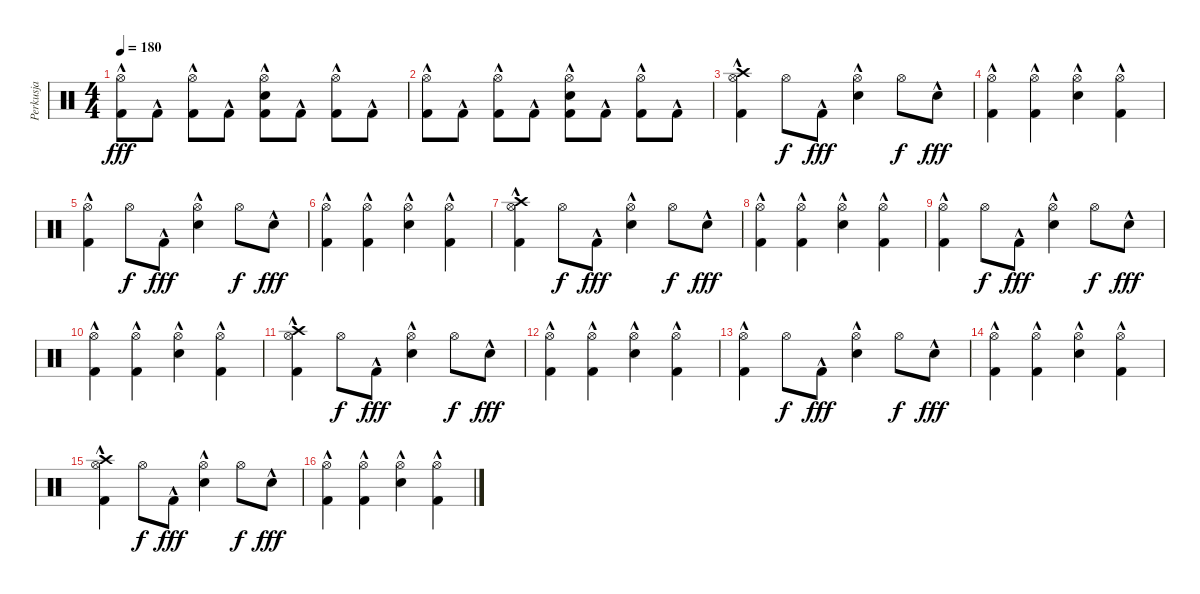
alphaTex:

\track ("Perkusja" "Perkusja") {instrument percussion}
\staff {score}
\articulation defaults
\ts (4 4)
\tempo 180
\clef neutral
\ks c
("Hi-Hat (open)" "Kick (hit) 2"{hac}).8{dy fff} "Kick (hit) 2"{hac}.8 ("Hi-Hat (open)" "Kick (hit) 2"{hac}).8 "Kick (hit) 2"{hac}.8 ("Hi-Hat (open)" "Electric Snare (hit)"{hac} "Kick (hit) 2"{hac}).8 "Kick (hit) 2"{hac}.8 ("Hi-Hat (open)" "Kick (hit) 2"{hac}).8 "Kick (hit) 2"{hac}.8 |
("Hi-Hat (open)" "Kick (hit) 2"{hac}).8 "Kick (hit) 2"{hac}.8 ("Hi-Hat (open)" "Kick (hit) 2"{hac}).8 "Kick (hit) 2"{hac}.8 ("Hi-Hat (open)" "Electric Snare (hit)"{hac} "Kick (hit) 2"{hac}).8 "Kick (hit) 2"{hac}.8 ("Hi-Hat (open)" "Kick (hit) 2"{hac}).8 "Kick (hit) 2"{hac}.8 |
("Crash high (hit)" "Hi-Hat (open)" "Kick (hit) 2"{hac}).4 "Hi-Hat (open)".8{dy f} "Kick (hit) 2"{hac}.8{dy fff} ("Hi-Hat (open)" "Electric Snare (hit)"{hac}).4 "Hi-Hat (open)".8{dy f} "Electric Snare (hit)"{hac}.8{dy fff} |
("Hi-Hat (open)" "Kick (hit) 2"{hac}).4 ("Hi-Hat (open)" "Kick (hit) 2"{hac}).4 ("Hi-Hat (open)" "Electric Snare (hit)"{hac}).4 ("Hi-Hat (open)" "Kick (hit) 2"{hac}).4 |
("Hi-Hat (open)" "Kick (hit) 2"{hac}).4 "Hi-Hat (open)".8{dy f} "Kick (hit) 2"{hac}.8{dy fff} ("Hi-Hat (open)" "Electric Snare (hit)"{hac}).4 "Hi-Hat (open)".8{dy f} "Electric Snare (hit)"{hac}.8{dy fff} |
("Hi-Hat (open)" "Kick (hit) 2"{hac}).4 ("Hi-Hat (open)" "Kick (hit) 2"{hac}).4 ("Hi-Hat (open)" "Electric Snare (hit)"{hac}).4 ("Hi-Hat (open)" "Kick (hit) 2"{hac}).4 |
("Crash high (hit)" "Hi-Hat (open)" "Kick (hit) 2"{hac}).4 "Hi-Hat (open)".8{dy f} "Kick (hit) 2"{hac}.8{dy fff} ("Hi-Hat (open)" "Electric Snare (hit)"{hac}).4 "Hi-Hat (open)".8{dy f} "Electric Snare (hit)"{hac}.8{dy fff} |
("Hi-Hat (open)" "Kick (hit) 2"{hac}).4 ("Hi-Hat (open)" "Kick (hit) 2"{hac}).4 ("Hi-Hat (open)" "Electric Snare (hit)"{hac}).4 ("Hi-Hat (open)" "Kick (hit) 2"{hac}).4 |
("Hi-Hat (open)" "Kick (hit) 2"{hac}).4 "Hi-Hat (open)".8{dy f} "Kick (hit) 2"{hac}.8{dy fff} ("Hi-Hat (open)" "Electric Snare (hit)"{hac}).4 "Hi-Hat (open)".8{dy f} "Electric Snare (hit)"{hac}.8{dy fff} |
("Hi-Hat (open)" "Kick (hit) 2"{hac}).4 ("Hi-Hat (open)" "Kick (hit) 2"{hac}).4 ("Hi-Hat (open)" "Electric Snare (hit)"{hac}).4 ("Hi-Hat (open)" "Kick (hit) 2"{hac}).4 |
("Crash high (hit)" "Hi-Hat (open)" "Kick (hit) 2"{hac}).4 "Hi-Hat (open)".8{dy f} "Kick (hit) 2"{hac}.8{dy fff} ("Hi-Hat (open)" "Electric Snare (hit)"{hac}).4 "Hi-Hat (open)".8{dy f} "Electric Snare (hit)"{hac}.8{dy fff} |
("Hi-Hat (open)" "Kick (hit) 2"{hac}).4 ("Hi-Hat (open)" "Kick (hit) 2"{hac}).4 ("Hi-Hat (open)" "Electric Snare (hit)"{hac}).4 ("Hi-Hat (open)" "Kick (hit) 2"{hac}).4 |
("Hi-Hat (open)" "Kick (hit) 2"{hac}).4 "Hi-Hat (open)".8{dy f} "Kick (hit) 2"{hac}.8{dy fff} ("Hi-Hat (open)" "Electric Snare (hit)"{hac}).4 "Hi-Hat (open)".8{dy f} "Electric Snare (hit)"{hac}.8{dy fff} |
("Hi-Hat (open)" "Kick (hit) 2"{hac}).4 ("Hi-Hat (open)" "Kick (hit) 2"{hac}).4 ("Hi-Hat (open)" "Electric Snare (hit)"{hac}).4 ("Hi-Hat (open)" "Kick (hit) 2"{hac}).4 |
("Crash high (hit)" "Hi-Hat (open)" "Kick (hit) 2"{hac}).4 "Hi-Hat (open)".8{dy f} "Kick (hit) 2"{hac}.8{dy fff} ("Hi-Hat (open)" "Electric Snare (hit)"{hac}).4 "Hi-Hat (open)".8{dy f} "Electric Snare (hit)"{hac}.8{dy fff} |
("Hi-Hat (open)" "Kick (hit) 2"{hac}).4 ("Hi-Hat (open)" "Kick (hit) 2"{hac}).4 ("Hi-Hat (open)" "Electric Snare (hit)"{hac}).4 ("Hi-Hat (open)" "Kick (hit) 2"{hac}).4
